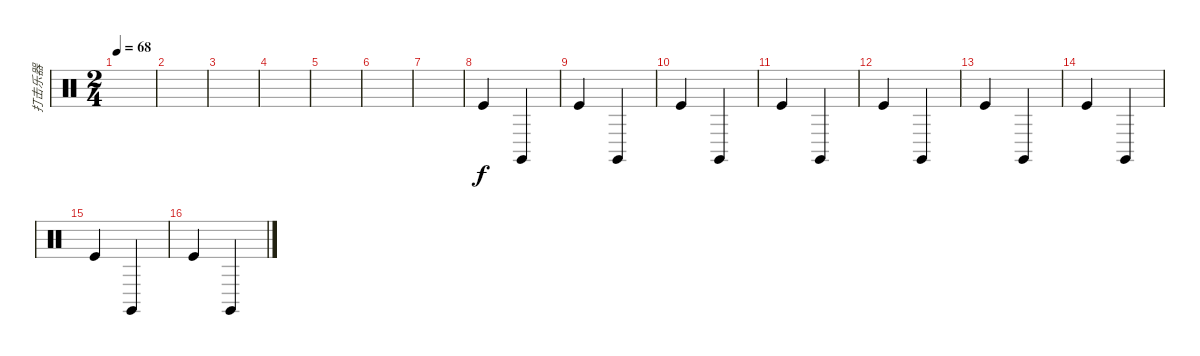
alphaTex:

\track ("打击乐器" "打击乐器") {instrument percussion}
\staff {score}
\articulation defaults
\ts (2 4)
\tempo 68
\clef neutral
\ks c
|
|
|
|
|
|
|
"Kick (hit)".4 "Claves (hit)".4 |
"Kick (hit)".4 "Claves (hit)".4 |
"Kick (hit)".4 "Claves (hit)".4 |
"Kick (hit)".4 "Claves (hit)".4 |
"Kick (hit)".4 "Claves (hit)".4 |
"Kick (hit)".4 "Claves (hit)".4 |
"Kick (hit)".4 "Claves (hit)".4 |
"Kick (hit)".4 "Claves (hit)".4 |
"Kick (hit)".4 "Claves (hit)".4
